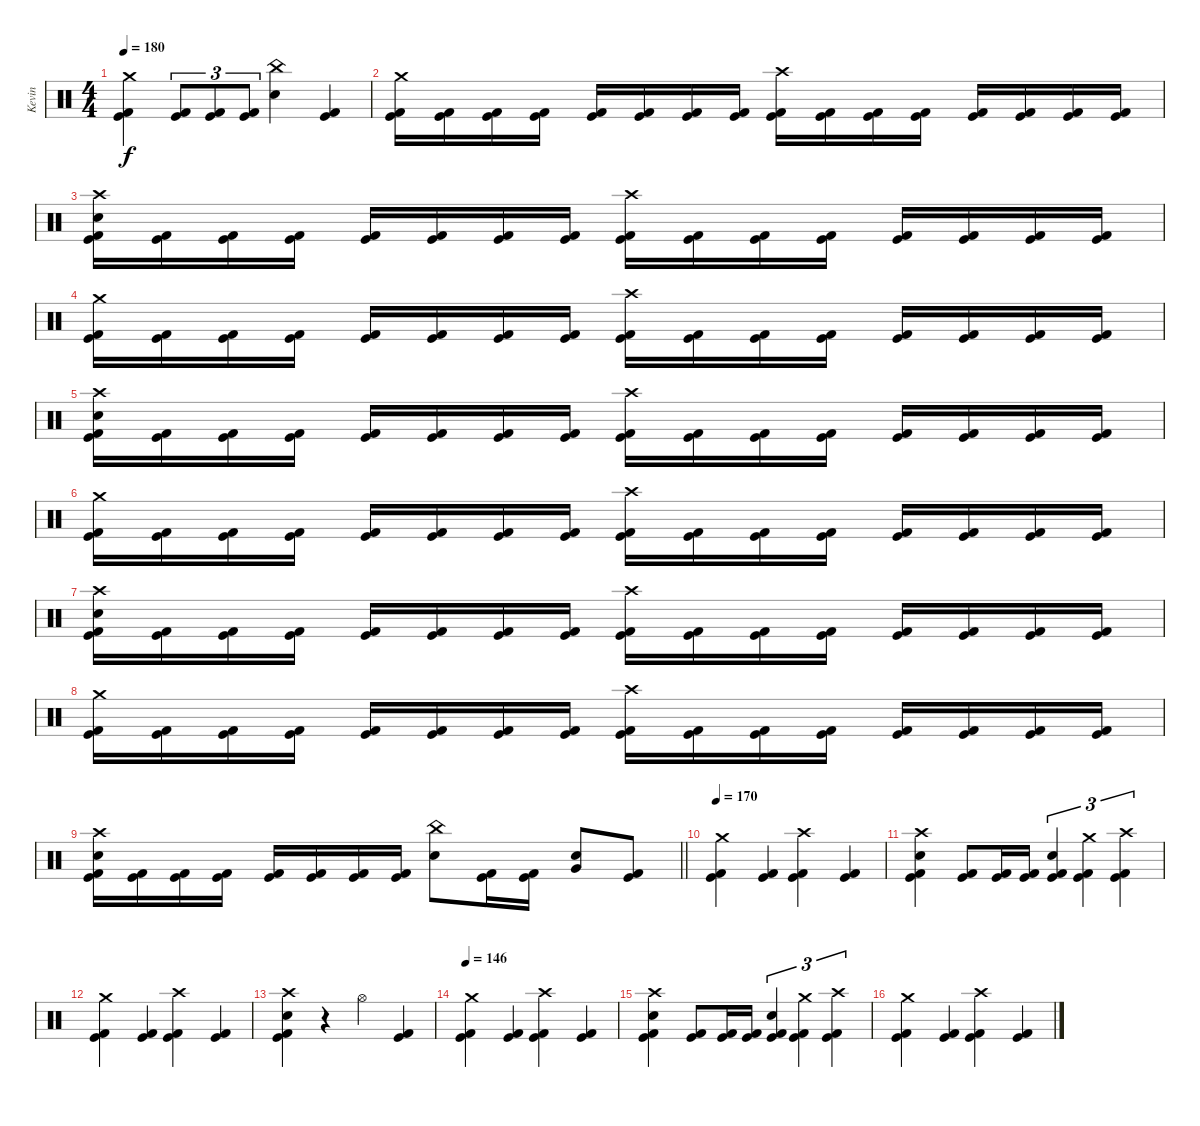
\track ("Kevin" "Kevin") {instrument percussion}
\staff {score}
\articulation defaults
\ts (4 4)
\tempo 180
\clef neutral
\ks c
("Crash medium (hit)" "Kick (hit)" "Kick (hit) 2").4{dy f} ("Kick (hit)" "Kick (hit) 2").8{tu (3 2)} ("Kick (hit)" "Kick (hit) 2").8{tu (3 2)} ("Kick (hit)" "Kick (hit) 2").8{tu (3 2)} ("China (hit)" "Electric Snare (hit)").4 ("Kick (hit)" "Kick (hit) 2").4 |
("Crash medium (hit)" "Kick (hit)" "Kick (hit) 2").16 ("Kick (hit)" "Kick (hit) 2").16 ("Kick (hit)" "Kick (hit) 2").16 ("Kick (hit)" "Kick (hit) 2").16 ("Kick (hit)" "Kick (hit) 2").16 ("Kick (hit)" "Kick (hit) 2").16 ("Kick (hit)" "Kick (hit) 2").16 ("Kick (hit)" "Kick (hit) 2").16 ("Crash high (hit)" "Kick (hit)" "Kick (hit) 2").16 ("Kick (hit)" "Kick (hit) 2").16 ("Kick (hit)" "Kick (hit) 2").16 ("Kick (hit)" "Kick (hit) 2").16 ("Kick (hit)" "Kick (hit) 2").16 ("Kick (hit)" "Kick (hit) 2").16 ("Kick (hit)" "Kick (hit) 2").16 ("Kick (hit)" "Kick (hit) 2").16 |
("Crash high (hit)" "Electric Snare (hit)" "Kick (hit)" "Kick (hit) 2").16 ("Kick (hit)" "Kick (hit) 2").16 ("Kick (hit)" "Kick (hit) 2").16 ("Kick (hit)" "Kick (hit) 2").16 ("Kick (hit)" "Kick (hit) 2").16 ("Kick (hit)" "Kick (hit) 2").16 ("Kick (hit)" "Kick (hit) 2").16 ("Kick (hit)" "Kick (hit) 2").16 ("Crash high (hit)" "Kick (hit)" "Kick (hit) 2").16 ("Kick (hit)" "Kick (hit) 2").16 ("Kick (hit)" "Kick (hit) 2").16 ("Kick (hit)" "Kick (hit) 2").16 ("Kick (hit)" "Kick (hit) 2").16 ("Kick (hit)" "Kick (hit) 2").16 ("Kick (hit)" "Kick (hit) 2").16 ("Kick (hit)" "Kick (hit) 2").16 |
("Crash medium (hit)" "Kick (hit)" "Kick (hit) 2").16 ("Kick (hit)" "Kick (hit) 2").16 ("Kick (hit)" "Kick (hit) 2").16 ("Kick (hit)" "Kick (hit) 2").16 ("Kick (hit)" "Kick (hit) 2").16 ("Kick (hit)" "Kick (hit) 2").16 ("Kick (hit)" "Kick (hit) 2").16 ("Kick (hit)" "Kick (hit) 2").16 ("Crash high (hit)" "Kick (hit)" "Kick (hit) 2").16 ("Kick (hit)" "Kick (hit) 2").16 ("Kick (hit)" "Kick (hit) 2").16 ("Kick (hit)" "Kick (hit) 2").16 ("Kick (hit)" "Kick (hit) 2").16 ("Kick (hit)" "Kick (hit) 2").16 ("Kick (hit)" "Kick (hit) 2").16 ("Kick (hit)" "Kick (hit) 2").16 |
("Crash high (hit)" "Electric Snare (hit)" "Kick (hit)" "Kick (hit) 2").16 ("Kick (hit)" "Kick (hit) 2").16 ("Kick (hit)" "Kick (hit) 2").16 ("Kick (hit)" "Kick (hit) 2").16 ("Kick (hit)" "Kick (hit) 2").16 ("Kick (hit)" "Kick (hit) 2").16 ("Kick (hit)" "Kick (hit) 2").16 ("Kick (hit)" "Kick (hit) 2").16 ("Crash high (hit)" "Kick (hit)" "Kick (hit) 2").16 ("Kick (hit)" "Kick (hit) 2").16 ("Kick (hit)" "Kick (hit) 2").16 ("Kick (hit)" "Kick (hit) 2").16 ("Kick (hit)" "Kick (hit) 2").16 ("Kick (hit)" "Kick (hit) 2").16 ("Kick (hit)" "Kick (hit) 2").16 ("Kick (hit)" "Kick (hit) 2").16 |
("Crash medium (hit)" "Kick (hit)" "Kick (hit) 2").16 ("Kick (hit)" "Kick (hit) 2").16 ("Kick (hit)" "Kick (hit) 2").16 ("Kick (hit)" "Kick (hit) 2").16 ("Kick (hit)" "Kick (hit) 2").16 ("Kick (hit)" "Kick (hit) 2").16 ("Kick (hit)" "Kick (hit) 2").16 ("Kick (hit)" "Kick (hit) 2").16 ("Crash high (hit)" "Kick (hit)" "Kick (hit) 2").16 ("Kick (hit)" "Kick (hit) 2").16 ("Kick (hit)" "Kick (hit) 2").16 ("Kick (hit)" "Kick (hit) 2").16 ("Kick (hit)" "Kick (hit) 2").16 ("Kick (hit)" "Kick (hit) 2").16 ("Kick (hit)" "Kick (hit) 2").16 ("Kick (hit)" "Kick (hit) 2").16 |
("Crash high (hit)" "Electric Snare (hit)" "Kick (hit)" "Kick (hit) 2").16 ("Kick (hit)" "Kick (hit) 2").16 ("Kick (hit)" "Kick (hit) 2").16 ("Kick (hit)" "Kick (hit) 2").16 ("Kick (hit)" "Kick (hit) 2").16 ("Kick (hit)" "Kick (hit) 2").16 ("Kick (hit)" "Kick (hit) 2").16 ("Kick (hit)" "Kick (hit) 2").16 ("Crash high (hit)" "Kick (hit)" "Kick (hit) 2").16 ("Kick (hit)" "Kick (hit) 2").16 ("Kick (hit)" "Kick (hit) 2").16 ("Kick (hit)" "Kick (hit) 2").16 ("Kick (hit)" "Kick (hit) 2").16 ("Kick (hit)" "Kick (hit) 2").16 ("Kick (hit)" "Kick (hit) 2").16 ("Kick (hit)" "Kick (hit) 2").16 |
("Crash medium (hit)" "Kick (hit)" "Kick (hit) 2").16 ("Kick (hit)" "Kick (hit) 2").16 ("Kick (hit)" "Kick (hit) 2").16 ("Kick (hit)" "Kick (hit) 2").16 ("Kick (hit)" "Kick (hit) 2").16 ("Kick (hit)" "Kick (hit) 2").16 ("Kick (hit)" "Kick (hit) 2").16 ("Kick (hit)" "Kick (hit) 2").16 ("Crash high (hit)" "Kick (hit)" "Kick (hit) 2").16 ("Kick (hit)" "Kick (hit) 2").16 ("Kick (hit)" "Kick (hit) 2").16 ("Kick (hit)" "Kick (hit) 2").16 ("Kick (hit)" "Kick (hit) 2").16 ("Kick (hit)" "Kick (hit) 2").16 ("Kick (hit)" "Kick (hit) 2").16 ("Kick (hit)" "Kick (hit) 2").16 |
\barLineRight lightlight
("Crash high (hit)" "Electric Snare (hit)" "Kick (hit)" "Kick (hit) 2").16 ("Kick (hit)" "Kick (hit) 2").16 ("Kick (hit)" "Kick (hit) 2").16 ("Kick (hit)" "Kick (hit) 2").16 ("Kick (hit)" "Kick (hit) 2").16 ("Kick (hit)" "Kick (hit) 2").16 ("Kick (hit)" "Kick (hit) 2").16 ("Kick (hit)" "Kick (hit) 2").16 ("China (hit)" "Electric Snare (hit)").8 ("Kick (hit)" "Kick (hit) 2").16 ("Kick (hit)" "Kick (hit) 2").16 ("Electric Snare (hit)" "Very Low Tom (hit)").8 ("Kick (hit)" "Kick (hit) 2").8 |
\section ("" "")
\tempo 170
("Crash medium (hit)" "Kick (hit)" "Kick (hit) 2").4 ("Kick (hit)" "Kick (hit) 2").4 ("Crash high (hit)" "Kick (hit)" "Kick (hit) 2").4 ("Kick (hit)" "Kick (hit) 2").4 |
("Crash high (hit)" "Electric Snare (hit)" "Kick (hit)" "Kick (hit) 2").4 ("Kick (hit)" "Kick (hit) 2").8 ("Kick (hit)" "Kick (hit) 2").16 ("Kick (hit)" "Kick (hit) 2").16 ("Electric Snare (hit)" "Kick (hit)" "Kick (hit) 2").4{tu (3 2)} ("Crash medium (hit)" "Kick (hit)" "Kick (hit) 2").4{tu (3 2)} ("Crash high (hit)" "Kick (hit)" "Kick (hit) 2").4{tu (3 2)} |
("Crash medium (hit)" "Kick (hit)" "Kick (hit) 2").4 ("Kick (hit)" "Kick (hit) 2").4 ("Crash high (hit)" "Kick (hit)" "Kick (hit) 2").4 ("Kick (hit)" "Kick (hit) 2").4 |
("Crash high (hit)" "Electric Snare (hit)" "Kick (hit)" "Kick (hit) 2").4 r.4 "Hi-Hat (open)".4 ("Kick (hit)" "Kick (hit) 2").4 |
\tempo 146
("Crash medium (hit)" "Kick (hit)" "Kick (hit) 2").4 ("Kick (hit)" "Kick (hit) 2").4 ("Crash high (hit)" "Kick (hit)" "Kick (hit) 2").4 ("Kick (hit)" "Kick (hit) 2").4 |
("Crash high (hit)" "Electric Snare (hit)" "Kick (hit)" "Kick (hit) 2").4 ("Kick (hit)" "Kick (hit) 2").8 ("Kick (hit)" "Kick (hit) 2").16 ("Kick (hit)" "Kick (hit) 2").16 ("Electric Snare (hit)" "Kick (hit)" "Kick (hit) 2").4{tu (3 2)} ("Crash medium (hit)" "Kick (hit)" "Kick (hit) 2").4{tu (3 2)} ("Crash high (hit)" "Kick (hit)" "Kick (hit) 2").4{tu (3 2)} |
("Crash medium (hit)" "Kick (hit)" "Kick (hit) 2").4 ("Kick (hit)" "Kick (hit) 2").4 ("Crash high (hit)" "Kick (hit)" "Kick (hit) 2").4 ("Kick (hit)" "Kick (hit) 2").4
